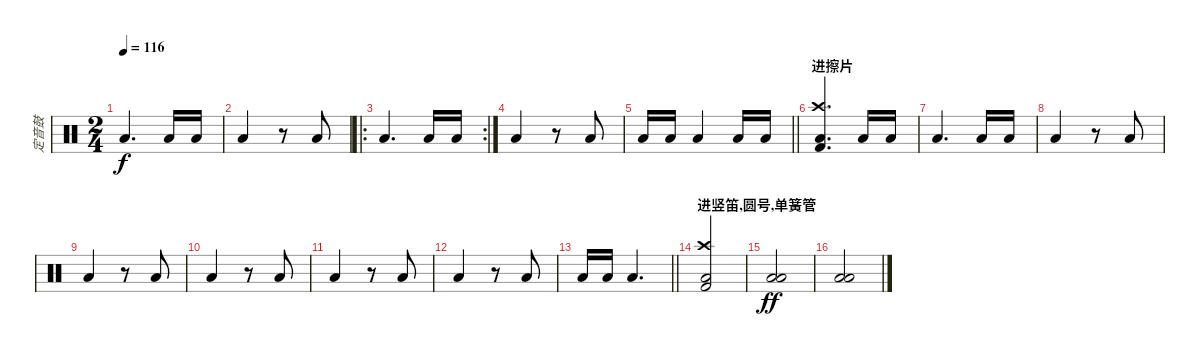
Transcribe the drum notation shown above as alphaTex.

\track ("定音鼓" "定音鼓") {instrument percussion}
\staff {score}
\articulation defaults
\ts (2 4)
\tempo 116
\clef neutral
\ks c "Low Floor Tom (hit)".4{d dy f} "Low Floor Tom (hit)".16 "Low Floor Tom (hit)".16
|
"Low Floor Tom (hit)".4 r.8 "Low Floor Tom (hit)".8 |
\ro
\rc 2 "Low Floor Tom (hit)".4{d} "Low Floor Tom (hit)".16 "Low Floor Tom (hit)".16
|
"Low Floor Tom (hit)".4 r.8 "Low Floor Tom (hit)".8 |
\barLineRight lightlight "Low Floor Tom (hit)".16 "Low Floor Tom (hit)".16 "Low Floor Tom (hit)".4 "Low Floor Tom (hit)".16 "Low Floor Tom (hit)".16
|
\section ("" "进擦片")
("Crash high (hit)" "Low Floor Tom (hit)" "Kick (hit) 2").4{d} "Low Floor Tom (hit)".16 "Low Floor Tom (hit)".16 |
"Low Floor Tom (hit)".4{d} "Low Floor Tom (hit)".16 "Low Floor Tom (hit)".16 |
"Low Floor Tom (hit)".4 r.8 "Low Floor Tom (hit)".8 |
"Low Floor Tom (hit)".4 r.8 "Low Floor Tom (hit)".8 |
"Low Floor Tom (hit)".4 r.8 "Low Floor Tom (hit)".8 |
"Low Floor Tom (hit)".4 r.8 "Low Floor Tom (hit)".8 |
"Low Floor Tom (hit)".4 r.8 "Low Floor Tom (hit)".8 |
\barLineRight lightlight "Low Floor Tom (hit)".16 "Low Floor Tom (hit)".16 "Low Floor Tom (hit)".4{d}
|
\section ("" "进竖笛,圆号,单簧管")
("Crash high (hit)" "Low Floor Tom (hit)" "Kick (hit) 2").2 |
("Low Floor Tom (hit)" "Low Floor Tom (hit)").2{dy ff} |
("Low Floor Tom (hit)" "Low Floor Tom (hit)").2
